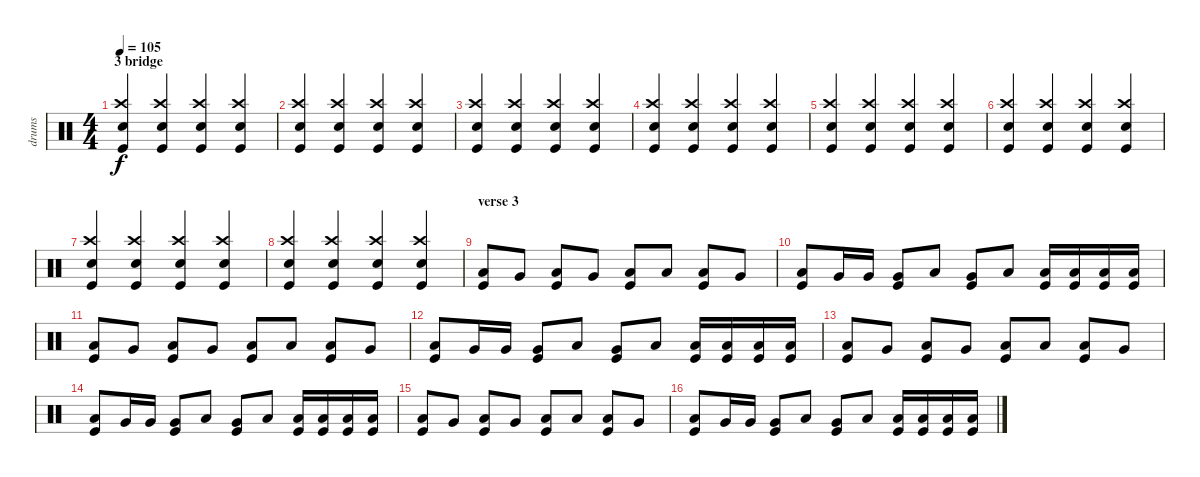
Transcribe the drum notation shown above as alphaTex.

\track ("drums" "drums") {instrument percussion}
\staff {score}
\articulation defaults
\ts (4 4)
\section ("" "3 bridge")
\tempo 105
\clef neutral
\ks c
("Kick (hit)" "Crash high (hit)" "Snare (hit) 2").4{dy f} ("Kick (hit)" "Crash high (hit)" "Snare (hit) 2").4 ("Kick (hit)" "Crash high (hit)" "Snare (hit) 2").4 ("Kick (hit)" "Crash high (hit)" "Snare (hit) 2").4 |
("Kick (hit)" "Crash high (hit)" "Snare (hit) 2").4 ("Kick (hit)" "Crash high (hit)" "Snare (hit) 2").4 ("Kick (hit)" "Crash high (hit)" "Snare (hit) 2").4 ("Kick (hit)" "Crash high (hit)" "Snare (hit) 2").4 |
("Kick (hit)" "Crash high (hit)" "Snare (hit) 2").4 ("Kick (hit)" "Crash high (hit)" "Snare (hit) 2").4 ("Kick (hit)" "Crash high (hit)" "Snare (hit) 2").4 ("Kick (hit)" "Crash high (hit)" "Snare (hit) 2").4 |
("Kick (hit)" "Crash high (hit)" "Snare (hit) 2").4 ("Kick (hit)" "Crash high (hit)" "Snare (hit) 2").4 ("Kick (hit)" "Crash high (hit)" "Snare (hit) 2").4 ("Kick (hit)" "Crash high (hit)" "Snare (hit) 2").4 |
("Kick (hit)" "Crash high (hit)" "Snare (hit) 2").4 ("Kick (hit)" "Crash high (hit)" "Snare (hit) 2").4 ("Kick (hit)" "Crash high (hit)" "Snare (hit) 2").4 ("Kick (hit)" "Crash high (hit)" "Snare (hit) 2").4 |
("Kick (hit)" "Crash high (hit)" "Snare (hit) 2").4 ("Kick (hit)" "Crash high (hit)" "Snare (hit) 2").4 ("Kick (hit)" "Crash high (hit)" "Snare (hit) 2").4 ("Kick (hit)" "Crash high (hit)" "Snare (hit) 2").4 |
("Kick (hit)" "Crash high (hit)" "Snare (hit) 2").4 ("Kick (hit)" "Crash high (hit)" "Snare (hit) 2").4 ("Kick (hit)" "Crash high (hit)" "Snare (hit) 2").4 ("Kick (hit)" "Crash high (hit)" "Snare (hit) 2").4 |
("Kick (hit)" "Crash high (hit)" "Snare (hit) 2").4 ("Kick (hit)" "Crash high (hit)" "Snare (hit) 2").4 ("Kick (hit)" "Crash high (hit)" "Snare (hit) 2").4 ("Kick (hit)" "Crash high (hit)" "Snare (hit) 2").4 |
\section ("" "verse 3")
("Kick (hit)" "Low Floor Tom (hit)").8 "Very Low Tom (hit)".8 ("Kick (hit)" "Low Floor Tom (hit)").8 "Very Low Tom (hit)".8 ("Kick (hit)" "Low Floor Tom (hit)").8 "Low Floor Tom (hit)".8 ("Kick (hit)" "Low Floor Tom (hit)").8 "Very Low Tom (hit)".8 |
("Low Floor Tom (hit)" "Kick (hit)").8 "Very Low Tom (hit)".16 "Very Low Tom (hit)".16 ("Very Low Tom (hit)" "Kick (hit)").8 "Low Floor Tom (hit)".8 ("Very Low Tom (hit)" "Kick (hit)").8 "Low Floor Tom (hit)".8 ("Low Floor Tom (hit)" "Kick (hit)").16 ("Low Floor Tom (hit)" "Kick (hit)").16 ("Low Floor Tom (hit)" "Kick (hit)").16 ("Low Floor Tom (hit)" "Kick (hit)").16 |
("Kick (hit)" "Low Floor Tom (hit)").8 "Very Low Tom (hit)".8 ("Kick (hit)" "Low Floor Tom (hit)").8 "Very Low Tom (hit)".8 ("Kick (hit)" "Low Floor Tom (hit)").8 "Low Floor Tom (hit)".8 ("Kick (hit)" "Low Floor Tom (hit)").8 "Very Low Tom (hit)".8 |
("Low Floor Tom (hit)" "Kick (hit)").8 "Very Low Tom (hit)".16 "Very Low Tom (hit)".16 ("Very Low Tom (hit)" "Kick (hit)").8 "Low Floor Tom (hit)".8 ("Very Low Tom (hit)" "Kick (hit)").8 "Low Floor Tom (hit)".8 ("Low Floor Tom (hit)" "Kick (hit)").16 ("Low Floor Tom (hit)" "Kick (hit)").16 ("Low Floor Tom (hit)" "Kick (hit)").16 ("Low Floor Tom (hit)" "Kick (hit)").16 |
("Kick (hit)" "Low Floor Tom (hit)").8 "Very Low Tom (hit)".8 ("Kick (hit)" "Low Floor Tom (hit)").8 "Very Low Tom (hit)".8 ("Kick (hit)" "Low Floor Tom (hit)").8 "Low Floor Tom (hit)".8 ("Kick (hit)" "Low Floor Tom (hit)").8 "Very Low Tom (hit)".8 |
("Low Floor Tom (hit)" "Kick (hit)").8 "Very Low Tom (hit)".16 "Very Low Tom (hit)".16 ("Very Low Tom (hit)" "Kick (hit)").8 "Low Floor Tom (hit)".8 ("Very Low Tom (hit)" "Kick (hit)").8 "Low Floor Tom (hit)".8 ("Low Floor Tom (hit)" "Kick (hit)").16 ("Low Floor Tom (hit)" "Kick (hit)").16 ("Low Floor Tom (hit)" "Kick (hit)").16 ("Low Floor Tom (hit)" "Kick (hit)").16 |
("Kick (hit)" "Low Floor Tom (hit)").8 "Very Low Tom (hit)".8 ("Kick (hit)" "Low Floor Tom (hit)").8 "Very Low Tom (hit)".8 ("Kick (hit)" "Low Floor Tom (hit)").8 "Low Floor Tom (hit)".8 ("Kick (hit)" "Low Floor Tom (hit)").8 "Very Low Tom (hit)".8 |
("Low Floor Tom (hit)" "Kick (hit)").8 "Very Low Tom (hit)".16 "Very Low Tom (hit)".16 ("Very Low Tom (hit)" "Kick (hit)").8 "Low Floor Tom (hit)".8 ("Very Low Tom (hit)" "Kick (hit)").8 "Low Floor Tom (hit)".8 ("Low Floor Tom (hit)" "Kick (hit)").16 ("Low Floor Tom (hit)" "Kick (hit)").16 ("Low Floor Tom (hit)" "Kick (hit)").16 ("Low Floor Tom (hit)" "Kick (hit)").16
